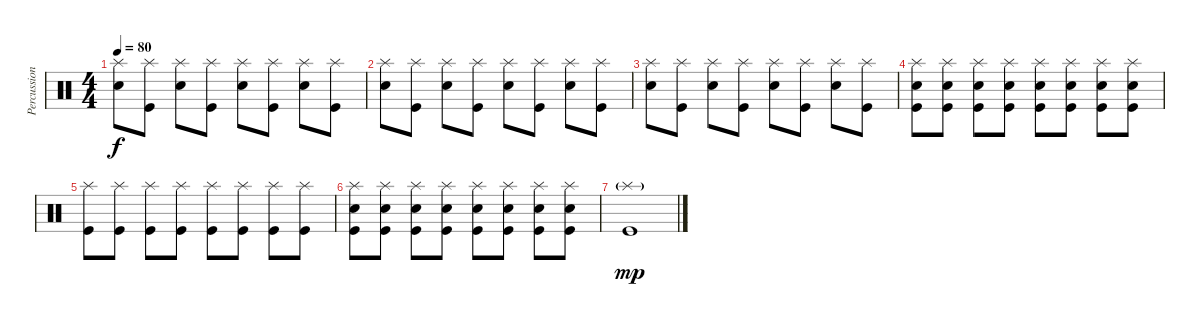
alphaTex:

\track ("Percussions" "Percussion") {instrument percussion}
\staff {score}
\articulation defaults
\ts (4 4)
\tempo 80
\clef neutral
\ks c
("Splash (hit)" "Snare (hit) 2").8{dy f} ("Splash (hit)" "Kick (hit)").8 ("Splash (hit)" "Snare (hit) 2").8 ("Splash (hit)" "Kick (hit)").8 ("Splash (hit)" "Snare (hit) 2").8 ("Splash (hit)" "Kick (hit)").8 ("Splash (hit)" "Snare (hit) 2").8 ("Splash (hit)" "Kick (hit)").8 |
("Splash (hit)" "Snare (hit) 2").8 ("Splash (hit)" "Kick (hit)").8 ("Splash (hit)" "Snare (hit) 2").8 ("Splash (hit)" "Kick (hit)").8 ("Splash (hit)" "Snare (hit) 2").8 ("Splash (hit)" "Kick (hit)").8 ("Splash (hit)" "Snare (hit) 2").8 ("Splash (hit)" "Kick (hit)").8 |
("Splash (hit)" "Snare (hit) 2").8 ("Splash (hit)" "Kick (hit)").8 ("Splash (hit)" "Snare (hit) 2").8 ("Splash (hit)" "Kick (hit)").8 ("Splash (hit)" "Snare (hit) 2").8 ("Splash (hit)" "Kick (hit)").8 ("Splash (hit)" "Snare (hit) 2").8 ("Splash (hit)" "Kick (hit)").8 |
("Splash (hit)" "Snare (hit) 2" "Kick (hit)").8 ("Splash (hit)" "Snare (hit) 2" "Kick (hit)").8 ("Splash (hit)" "Snare (hit) 2" "Kick (hit)").8 ("Splash (hit)" "Snare (hit) 2" "Kick (hit)").8 ("Splash (hit)" "Snare (hit) 2" "Kick (hit)").8 ("Splash (hit)" "Snare (hit) 2" "Kick (hit)").8 ("Splash (hit)" "Snare (hit) 2" "Kick (hit)").8 ("Splash (hit)" "Snare (hit) 2" "Kick (hit)").8 |
("Splash (hit)" "Kick (hit)").8 ("Splash (hit)" "Kick (hit)").8 ("Splash (hit)" "Kick (hit)").8 ("Splash (hit)" "Kick (hit)").8 ("Splash (hit)" "Kick (hit)").8 ("Splash (hit)" "Kick (hit)").8 ("Splash (hit)" "Kick (hit)").8 ("Splash (hit)" "Kick (hit)").8 |
("Splash (hit)" "Snare (hit) 2" "Kick (hit)").8 ("Splash (hit)" "Snare (hit) 2" "Kick (hit)").8 ("Splash (hit)" "Snare (hit) 2" "Kick (hit)").8 ("Splash (hit)" "Snare (hit) 2" "Kick (hit)").8 ("Splash (hit)" "Snare (hit) 2" "Kick (hit)").8 ("Splash (hit)" "Snare (hit) 2" "Kick (hit)").8 ("Splash (hit)" "Snare (hit) 2" "Kick (hit)").8 ("Splash (hit)" "Snare (hit) 2" "Kick (hit)").8 |
("Splash (hit)"{g} "Kick (hit)").1{dy mp}
